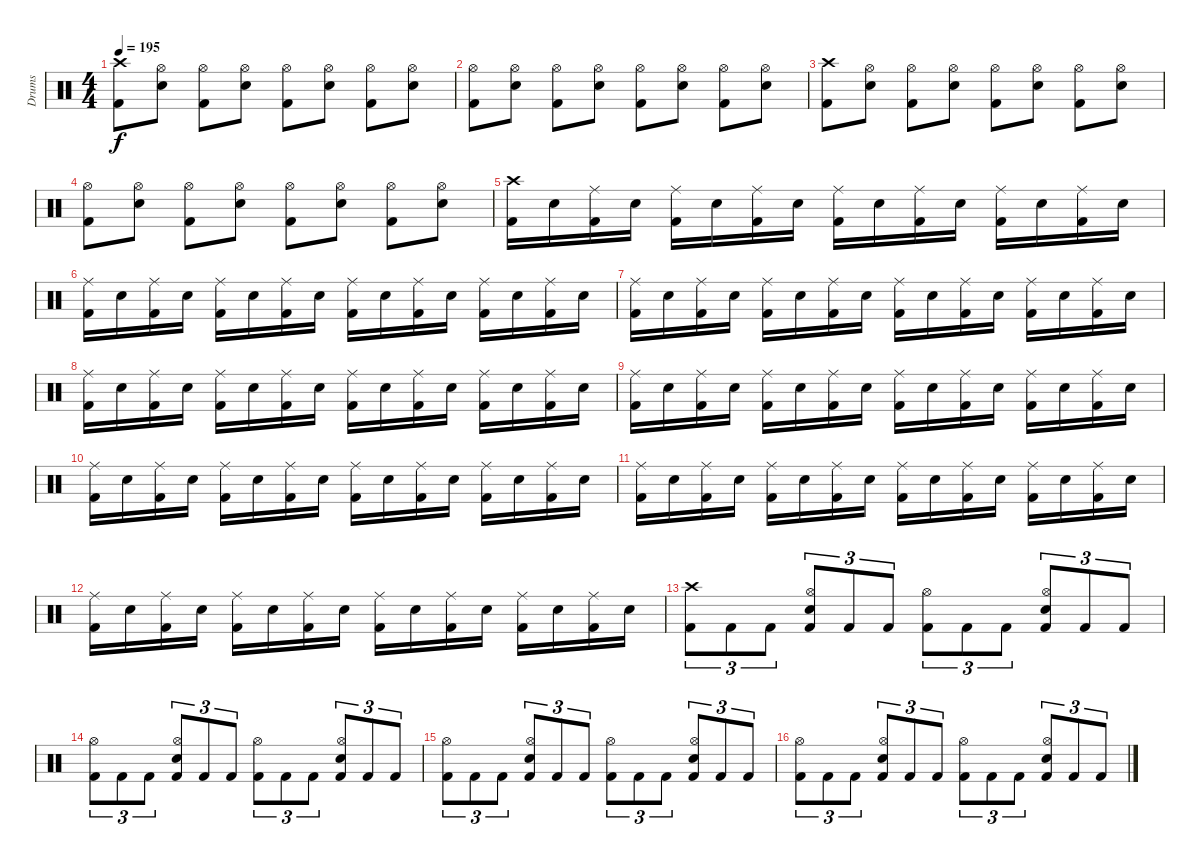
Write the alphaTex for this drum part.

\track ("Drums" "Drums") {instrument percussion}
\staff {score}
\articulation defaults
\ts (4 4)
\tempo 195
\clef neutral
\ks c
("Crash high (hit)" "Kick (hit) 2").8{dy f} ("Hi-Hat (open)" "Snare (hit) 2").8 ("Hi-Hat (open)" "Kick (hit) 2").8 ("Hi-Hat (open)" "Snare (hit) 2").8 ("Hi-Hat (open)" "Kick (hit) 2").8 ("Hi-Hat (open)" "Snare (hit) 2").8 ("Hi-Hat (open)" "Kick (hit) 2").8 ("Hi-Hat (open)" "Snare (hit) 2").8 |
("Hi-Hat (open)" "Kick (hit) 2").8 ("Hi-Hat (open)" "Snare (hit) 2").8 ("Hi-Hat (open)" "Kick (hit) 2").8 ("Hi-Hat (open)" "Snare (hit) 2").8 ("Hi-Hat (open)" "Kick (hit) 2").8 ("Hi-Hat (open)" "Snare (hit) 2").8 ("Hi-Hat (open)" "Kick (hit) 2").8 ("Hi-Hat (open)" "Snare (hit) 2").8 |
("Crash high (hit)" "Kick (hit) 2").8 ("Hi-Hat (open)" "Snare (hit) 2").8 ("Hi-Hat (open)" "Kick (hit) 2").8 ("Hi-Hat (open)" "Snare (hit) 2").8 ("Hi-Hat (open)" "Kick (hit) 2").8 ("Hi-Hat (open)" "Snare (hit) 2").8 ("Hi-Hat (open)" "Kick (hit) 2").8 ("Hi-Hat (open)" "Snare (hit) 2").8 |
("Hi-Hat (open)" "Kick (hit) 2").8 ("Hi-Hat (open)" "Snare (hit) 2").8 ("Hi-Hat (open)" "Kick (hit) 2").8 ("Hi-Hat (open)" "Snare (hit) 2").8 ("Hi-Hat (open)" "Kick (hit) 2").8 ("Hi-Hat (open)" "Snare (hit) 2").8 ("Hi-Hat (open)" "Kick (hit) 2").8 ("Hi-Hat (open)" "Snare (hit) 2").8 |
("Crash high (hit)" "Kick (hit) 2").16 "Snare (hit) 2".16 ("Ride (middle)" "Kick (hit) 2").16 "Snare (hit) 2".16 ("Ride (middle)" "Kick (hit) 2").16 "Snare (hit) 2".16 ("Ride (middle)" "Kick (hit) 2").16 "Snare (hit) 2".16 ("Ride (middle)" "Kick (hit) 2").16 "Snare (hit) 2".16 ("Ride (middle)" "Kick (hit) 2").16 "Snare (hit) 2".16 ("Ride (middle)" "Kick (hit) 2").16 "Snare (hit) 2".16 ("Ride (middle)" "Kick (hit) 2").16 "Snare (hit) 2".16 |
("Ride (middle)" "Kick (hit) 2").16 "Snare (hit) 2".16 ("Ride (middle)" "Kick (hit) 2").16 "Snare (hit) 2".16 ("Ride (middle)" "Kick (hit) 2").16 "Snare (hit) 2".16 ("Ride (middle)" "Kick (hit) 2").16 "Snare (hit) 2".16 ("Ride (middle)" "Kick (hit) 2").16 "Snare (hit) 2".16 ("Ride (middle)" "Kick (hit) 2").16 "Snare (hit) 2".16 ("Ride (middle)" "Kick (hit) 2").16 "Snare (hit) 2".16 ("Ride (middle)" "Kick (hit) 2").16 "Snare (hit) 2".16 |
("Ride (middle)" "Kick (hit) 2").16 "Snare (hit) 2".16 ("Ride (middle)" "Kick (hit) 2").16 "Snare (hit) 2".16 ("Ride (middle)" "Kick (hit) 2").16 "Snare (hit) 2".16 ("Ride (middle)" "Kick (hit) 2").16 "Snare (hit) 2".16 ("Ride (middle)" "Kick (hit) 2").16 "Snare (hit) 2".16 ("Ride (middle)" "Kick (hit) 2").16 "Snare (hit) 2".16 ("Ride (middle)" "Kick (hit) 2").16 "Snare (hit) 2".16 ("Ride (middle)" "Kick (hit) 2").16 "Snare (hit) 2".16 |
("Ride (middle)" "Kick (hit) 2").16 "Snare (hit) 2".16 ("Ride (middle)" "Kick (hit) 2").16 "Snare (hit) 2".16 ("Ride (middle)" "Kick (hit) 2").16 "Snare (hit) 2".16 ("Ride (middle)" "Kick (hit) 2").16 "Snare (hit) 2".16 ("Ride (middle)" "Kick (hit) 2").16 "Snare (hit) 2".16 ("Ride (middle)" "Kick (hit) 2").16 "Snare (hit) 2".16 ("Ride (middle)" "Kick (hit) 2").16 "Snare (hit) 2".16 ("Ride (middle)" "Kick (hit) 2").16 "Snare (hit) 2".16 |
("Ride (middle)" "Kick (hit) 2").16 "Snare (hit) 2".16 ("Ride (middle)" "Kick (hit) 2").16 "Snare (hit) 2".16 ("Ride (middle)" "Kick (hit) 2").16 "Snare (hit) 2".16 ("Ride (middle)" "Kick (hit) 2").16 "Snare (hit) 2".16 ("Ride (middle)" "Kick (hit) 2").16 "Snare (hit) 2".16 ("Ride (middle)" "Kick (hit) 2").16 "Snare (hit) 2".16 ("Ride (middle)" "Kick (hit) 2").16 "Snare (hit) 2".16 ("Ride (middle)" "Kick (hit) 2").16 "Snare (hit) 2".16 |
("Ride (middle)" "Kick (hit) 2").16 "Snare (hit) 2".16 ("Ride (middle)" "Kick (hit) 2").16 "Snare (hit) 2".16 ("Ride (middle)" "Kick (hit) 2").16 "Snare (hit) 2".16 ("Ride (middle)" "Kick (hit) 2").16 "Snare (hit) 2".16 ("Ride (middle)" "Kick (hit) 2").16 "Snare (hit) 2".16 ("Ride (middle)" "Kick (hit) 2").16 "Snare (hit) 2".16 ("Ride (middle)" "Kick (hit) 2").16 "Snare (hit) 2".16 ("Ride (middle)" "Kick (hit) 2").16 "Snare (hit) 2".16 |
("Ride (middle)" "Kick (hit) 2").16 "Snare (hit) 2".16 ("Ride (middle)" "Kick (hit) 2").16 "Snare (hit) 2".16 ("Ride (middle)" "Kick (hit) 2").16 "Snare (hit) 2".16 ("Ride (middle)" "Kick (hit) 2").16 "Snare (hit) 2".16 ("Ride (middle)" "Kick (hit) 2").16 "Snare (hit) 2".16 ("Ride (middle)" "Kick (hit) 2").16 "Snare (hit) 2".16 ("Ride (middle)" "Kick (hit) 2").16 "Snare (hit) 2".16 ("Ride (middle)" "Kick (hit) 2").16 "Snare (hit) 2".16 |
("Ride (middle)" "Kick (hit) 2").16 "Snare (hit) 2".16 ("Ride (middle)" "Kick (hit) 2").16 "Snare (hit) 2".16 ("Ride (middle)" "Kick (hit) 2").16 "Snare (hit) 2".16 ("Ride (middle)" "Kick (hit) 2").16 "Snare (hit) 2".16 ("Ride (middle)" "Kick (hit) 2").16 "Snare (hit) 2".16 ("Ride (middle)" "Kick (hit) 2").16 "Snare (hit) 2".16 ("Ride (middle)" "Kick (hit) 2").16 "Snare (hit) 2".16 ("Ride (middle)" "Kick (hit) 2").16 "Snare (hit) 2".16 |
("Crash high (hit)" "Kick (hit) 2").8{tu (3 2)} "Kick (hit) 2".8{tu (3 2)} "Kick (hit) 2".8{tu (3 2)} ("Hi-Hat (open)" "Snare (hit) 2" "Kick (hit) 2").8{tu (3 2)} "Kick (hit) 2".8{tu (3 2)} "Kick (hit) 2".8{tu (3 2)} ("Hi-Hat (open)" "Kick (hit) 2").8{tu (3 2)} "Kick (hit) 2".8{tu (3 2)} "Kick (hit) 2".8{tu (3 2)} ("Hi-Hat (open)" "Snare (hit) 2" "Kick (hit) 2").8{tu (3 2)} "Kick (hit) 2".8{tu (3 2)} "Kick (hit) 2".8{tu (3 2)} |
("Hi-Hat (open)" "Kick (hit) 2").8{tu (3 2)} "Kick (hit) 2".8{tu (3 2)} "Kick (hit) 2".8{tu (3 2)} ("Hi-Hat (open)" "Snare (hit) 2" "Kick (hit) 2").8{tu (3 2)} "Kick (hit) 2".8{tu (3 2)} "Kick (hit) 2".8{tu (3 2)} ("Hi-Hat (open)" "Kick (hit) 2").8{tu (3 2)} "Kick (hit) 2".8{tu (3 2)} "Kick (hit) 2".8{tu (3 2)} ("Hi-Hat (open)" "Snare (hit) 2" "Kick (hit) 2").8{tu (3 2)} "Kick (hit) 2".8{tu (3 2)} "Kick (hit) 2".8{tu (3 2)} |
("Hi-Hat (open)" "Kick (hit) 2").8{tu (3 2)} "Kick (hit) 2".8{tu (3 2)} "Kick (hit) 2".8{tu (3 2)} ("Hi-Hat (open)" "Snare (hit) 2" "Kick (hit) 2").8{tu (3 2)} "Kick (hit) 2".8{tu (3 2)} "Kick (hit) 2".8{tu (3 2)} ("Hi-Hat (open)" "Kick (hit) 2").8{tu (3 2)} "Kick (hit) 2".8{tu (3 2)} "Kick (hit) 2".8{tu (3 2)} ("Hi-Hat (open)" "Snare (hit) 2" "Kick (hit) 2").8{tu (3 2)} "Kick (hit) 2".8{tu (3 2)} "Kick (hit) 2".8{tu (3 2)} |
("Hi-Hat (open)" "Kick (hit) 2").8{tu (3 2)} "Kick (hit) 2".8{tu (3 2)} "Kick (hit) 2".8{tu (3 2)} ("Hi-Hat (open)" "Snare (hit) 2" "Kick (hit) 2").8{tu (3 2)} "Kick (hit) 2".8{tu (3 2)} "Kick (hit) 2".8{tu (3 2)} ("Hi-Hat (open)" "Kick (hit) 2").8{tu (3 2)} "Kick (hit) 2".8{tu (3 2)} "Kick (hit) 2".8{tu (3 2)} ("Hi-Hat (open)" "Snare (hit) 2" "Kick (hit) 2").8{tu (3 2)} "Kick (hit) 2".8{tu (3 2)} "Kick (hit) 2".8{tu (3 2)}
